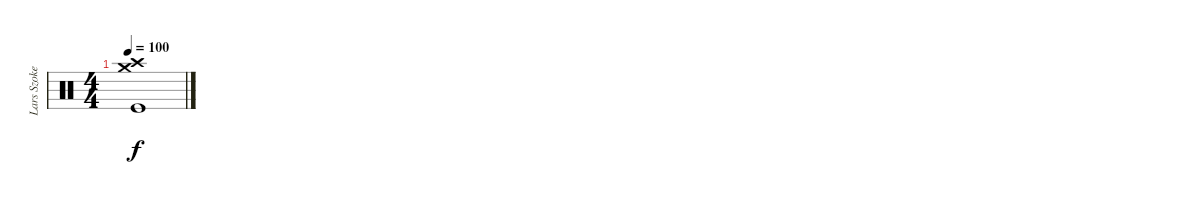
\track ("Lars Szoke" "Lars Szoke") {instrument percussion}
\staff {score}
\articulation defaults
\ts (4 4)
\tempo 100
\clef neutral
\ks c
("Crash medium (hit)" "Crash high (hit)" "Kick (hit)").1{dy f}
